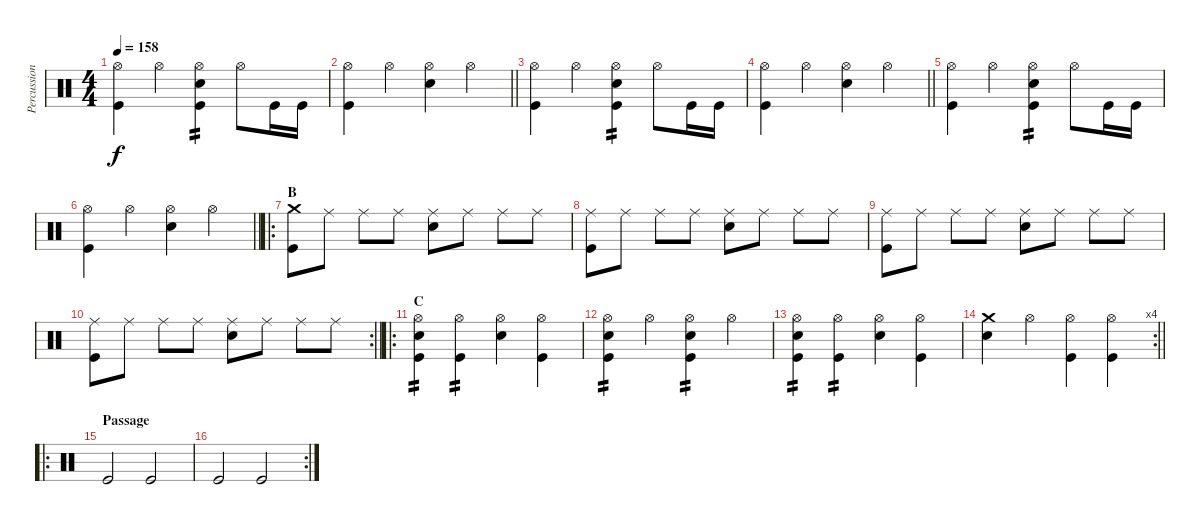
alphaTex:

\track ("Percussion" "Percussion") {instrument percussion}
\staff {score}
\articulation defaults
\ts (4 4)
\tempo 158
\clef neutral
\ks c
("Hi-Hat (open)" "Kick (hit)").4{dy f} "Hi-Hat (open)".4 ("Hi-Hat (open)" "Snare (hit) 2" "Kick (hit)").4{tp 2} "Hi-Hat (open)".8 "Kick (hit)".16 "Kick (hit)".16 |
\barLineRight lightlight
("Hi-Hat (open)" "Kick (hit)").4 "Hi-Hat (open)".4 ("Hi-Hat (open)" "Snare (hit) 2").4 "Hi-Hat (open)".4 |
("Hi-Hat (open)" "Kick (hit)").4 "Hi-Hat (open)".4 ("Hi-Hat (open)" "Snare (hit) 2" "Kick (hit)").4{tp 2} "Hi-Hat (open)".8 "Kick (hit)".16 "Kick (hit)".16 |
\barLineRight lightlight
("Hi-Hat (open)" "Kick (hit)").4 "Hi-Hat (open)".4 ("Hi-Hat (open)" "Snare (hit) 2").4 "Hi-Hat (open)".4 |
("Hi-Hat (open)" "Kick (hit)").4 "Hi-Hat (open)".4 ("Hi-Hat (open)" "Snare (hit) 2" "Kick (hit)").4{tp 2} "Hi-Hat (open)".8 "Kick (hit)".16 "Kick (hit)".16 |
\barLineRight lightlight
("Hi-Hat (open)" "Kick (hit)").4 "Hi-Hat (open)".4 ("Hi-Hat (open)" "Snare (hit) 2").4 "Hi-Hat (open)".4 |
\ro
\section ("" "B")
("Crash medium (hit)" "Kick (hit)").8 "Ride (middle)".8 "Ride (middle)".8 "Ride (middle)".8 ("Ride (middle)" "Snare (hit) 2").8 "Ride (middle)".8 "Ride (middle)".8 "Ride (middle)".8 |
("Ride (middle)" "Kick (hit)").8 "Ride (middle)".8 "Ride (middle)".8 "Ride (middle)".8 ("Ride (middle)" "Snare (hit) 2").8 "Ride (middle)".8 "Ride (middle)".8 "Ride (middle)".8 |
("Ride (middle)" "Kick (hit)").8 "Ride (middle)".8 "Ride (middle)".8 "Ride (middle)".8 ("Ride (middle)" "Snare (hit) 2").8 "Ride (middle)".8 "Ride (middle)".8 "Ride (middle)".8 |
\rc 2
\barLineRight lightlight
("Ride (middle)" "Kick (hit)").8 "Ride (middle)".8 "Ride (middle)".8 "Ride (middle)".8 ("Ride (middle)" "Snare (hit) 2").8 "Ride (middle)".8 "Ride (middle)".8 "Ride (middle)".8 |
\ro
\section ("" "C")
("Hi-Hat (open)" "Snare (hit) 2" "Kick (hit)").4{tp 2} ("Hi-Hat (open)" "Kick (hit)").4{tp 2} ("Hi-Hat (open)" "Snare (hit) 2").4 ("Hi-Hat (open)" "Kick (hit)").4 |
("Hi-Hat (open)" "Snare (hit) 2" "Kick (hit)").4{tp 2} "Hi-Hat (open)".4 ("Hi-Hat (open)" "Snare (hit) 2" "Kick (hit)").4{tp 2} "Hi-Hat (open)".4 |
("Hi-Hat (open)" "Snare (hit) 2" "Kick (hit)").4{tp 2} ("Hi-Hat (open)" "Kick (hit)").4{tp 2} ("Hi-Hat (open)" "Snare (hit) 2").4 ("Hi-Hat (open)" "Kick (hit)").4 |
\rc 4
\barLineRight lightlight
("Crash medium (hit)" "Snare (hit) 2").4 "Hi-Hat (open)".4 ("Hi-Hat (open)" "Kick (hit)").4 ("Hi-Hat (open)" "Kick (hit)").4 |
\ro
\section ("" "Passage")
"Kick (hit)".2 "Kick (hit)".2 |
\rc 2 "Kick (hit)".2 "Kick (hit)".2
